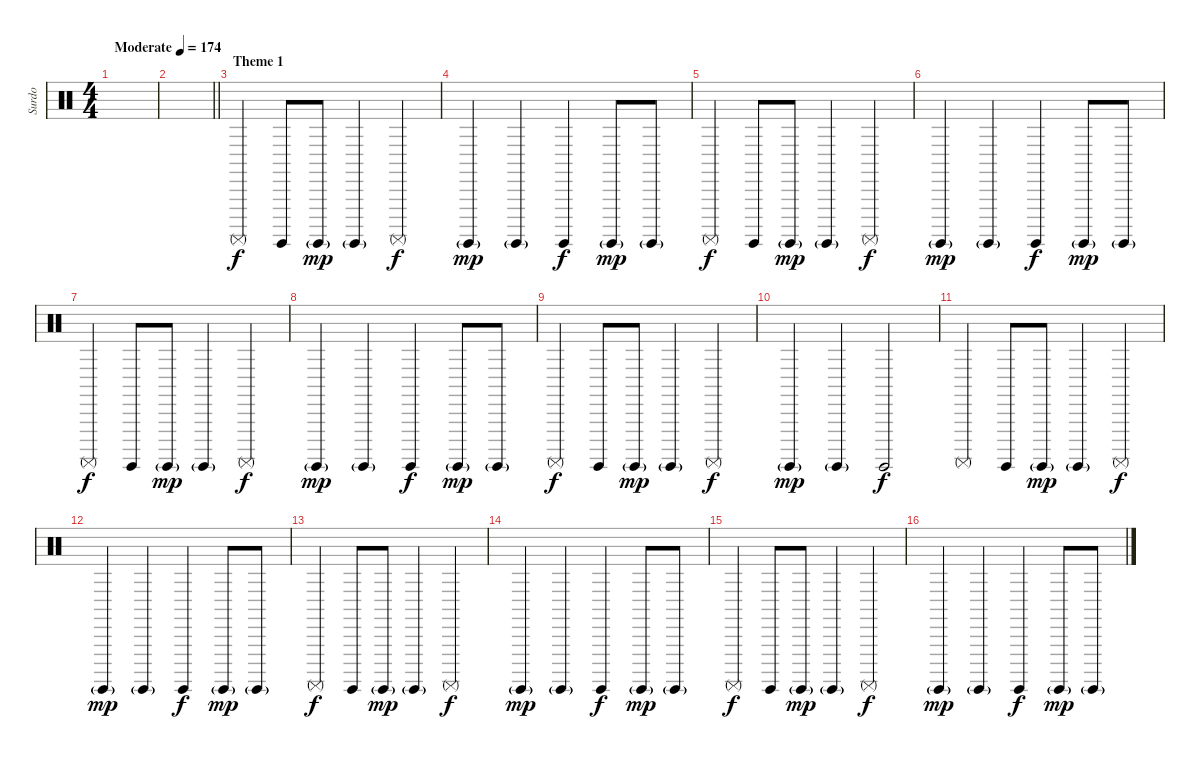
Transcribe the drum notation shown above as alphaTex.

\track ("Surdo" "Surdo") {instrument percussion}
\staff {score}
\articulation defaults
\ts (4 4)
\tempo (174 "Moderate")
\clef neutral
\ks c
|
\barLineRight lightlight
|
\section ("" "Theme 1")
"Surdo (mute)".4 "Surdo (hit)".8 "Surdo (hit)"{g}.8{dy mp} "Surdo (hit)"{g}.4 "Surdo (mute)".4{dy f} |
"Surdo (hit)"{g}.4{dy mp} "Surdo (hit)"{g}.4 "Surdo (hit)".4{dy f} "Surdo (hit)"{g}.8{dy mp} "Surdo (hit)"{g}.8 |
"Surdo (mute)".4{dy f} "Surdo (hit)".8 "Surdo (hit)"{g}.8{dy mp} "Surdo (hit)"{g}.4 "Surdo (mute)".4{dy f} |
"Surdo (hit)"{g}.4{dy mp} "Surdo (hit)"{g}.4 "Surdo (hit)".4{dy f} "Surdo (hit)"{g}.8{dy mp} "Surdo (hit)"{g}.8 |
"Surdo (mute)".4{dy f} "Surdo (hit)".8 "Surdo (hit)"{g}.8{dy mp} "Surdo (hit)"{g}.4 "Surdo (mute)".4{dy f} |
"Surdo (hit)"{g}.4{dy mp} "Surdo (hit)"{g}.4 "Surdo (hit)".4{dy f} "Surdo (hit)"{g}.8{dy mp} "Surdo (hit)"{g}.8 |
"Surdo (mute)".4{dy f} "Surdo (hit)".8 "Surdo (hit)"{g}.8{dy mp} "Surdo (hit)"{g}.4 "Surdo (mute)".4{dy f} |
"Surdo (hit)"{g}.4{dy mp} "Surdo (hit)"{g}.4 "Surdo (hit)".2{dy f} |
"Surdo (mute)".4 "Surdo (hit)".8 "Surdo (hit)"{g}.8{dy mp} "Surdo (hit)"{g}.4 "Surdo (mute)".4{dy f} |
"Surdo (hit)"{g}.4{dy mp} "Surdo (hit)"{g}.4 "Surdo (hit)".4{dy f} "Surdo (hit)"{g}.8{dy mp} "Surdo (hit)"{g}.8 |
"Surdo (mute)".4{dy f} "Surdo (hit)".8 "Surdo (hit)"{g}.8{dy mp} "Surdo (hit)"{g}.4 "Surdo (mute)".4{dy f} |
"Surdo (hit)"{g}.4{dy mp} "Surdo (hit)"{g}.4 "Surdo (hit)".4{dy f} "Surdo (hit)"{g}.8{dy mp} "Surdo (hit)"{g}.8 |
"Surdo (mute)".4{dy f} "Surdo (hit)".8 "Surdo (hit)"{g}.8{dy mp} "Surdo (hit)"{g}.4 "Surdo (mute)".4{dy f} |
"Surdo (hit)"{g}.4{dy mp} "Surdo (hit)"{g}.4 "Surdo (hit)".4{dy f} "Surdo (hit)"{g}.8{dy mp} "Surdo (hit)"{g}.8
